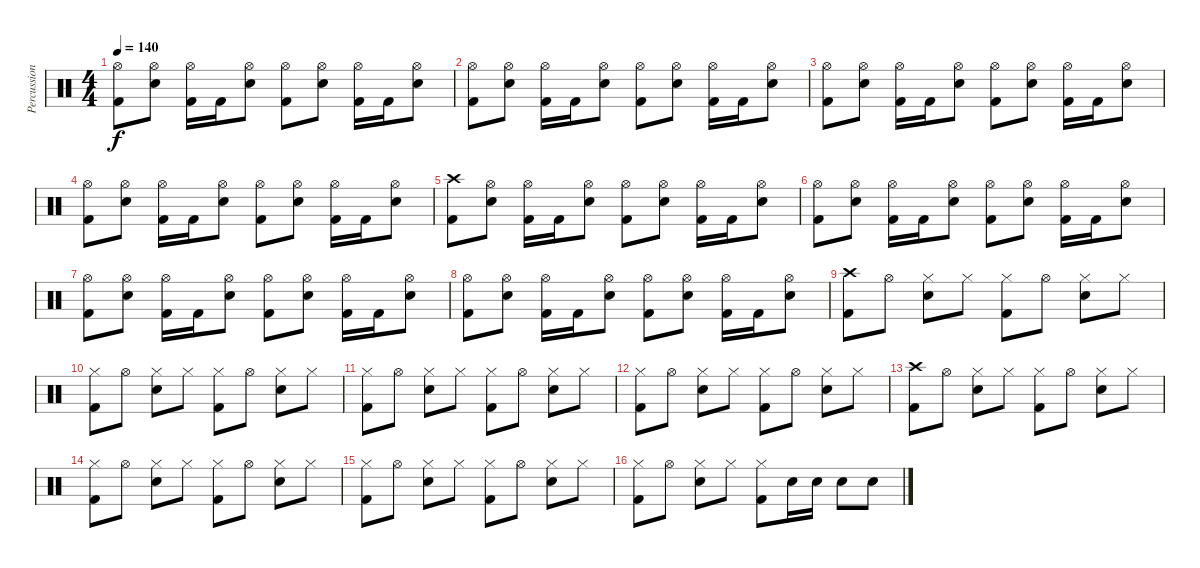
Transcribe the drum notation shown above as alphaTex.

\track ("Percussion" "Percussion") {instrument percussion}
\staff {score}
\articulation defaults
\ts (4 4)
\tempo 140
\clef neutral
\ks c
("Hi-Hat (open)" "Kick (hit) 2").8{dy f} ("Hi-Hat (open)" "Electric Snare (hit)").8 ("Hi-Hat (open)" "Kick (hit) 2").16 "Kick (hit) 2".16 ("Hi-Hat (open)" "Electric Snare (hit)").8 ("Hi-Hat (open)" "Kick (hit) 2").8 ("Hi-Hat (open)" "Electric Snare (hit)").8 ("Hi-Hat (open)" "Kick (hit) 2").16 "Kick (hit) 2".16 ("Hi-Hat (open)" "Electric Snare (hit)").8 |
("Hi-Hat (open)" "Kick (hit) 2").8 ("Hi-Hat (open)" "Electric Snare (hit)").8 ("Hi-Hat (open)" "Kick (hit) 2").16 "Kick (hit) 2".16 ("Hi-Hat (open)" "Electric Snare (hit)").8 ("Hi-Hat (open)" "Kick (hit) 2").8 ("Hi-Hat (open)" "Electric Snare (hit)").8 ("Hi-Hat (open)" "Kick (hit) 2").16 "Kick (hit) 2".16 ("Hi-Hat (open)" "Electric Snare (hit)").8 |
("Hi-Hat (open)" "Kick (hit) 2").8 ("Hi-Hat (open)" "Electric Snare (hit)").8 ("Hi-Hat (open)" "Kick (hit) 2").16 "Kick (hit) 2".16 ("Hi-Hat (open)" "Electric Snare (hit)").8 ("Hi-Hat (open)" "Kick (hit) 2").8 ("Hi-Hat (open)" "Electric Snare (hit)").8 ("Hi-Hat (open)" "Kick (hit) 2").16 "Kick (hit) 2".16 ("Hi-Hat (open)" "Electric Snare (hit)").8 |
("Hi-Hat (open)" "Kick (hit) 2").8 ("Hi-Hat (open)" "Electric Snare (hit)").8 ("Hi-Hat (open)" "Kick (hit) 2").16 "Kick (hit) 2".16 ("Hi-Hat (open)" "Electric Snare (hit)").8 ("Hi-Hat (open)" "Kick (hit) 2").8 ("Hi-Hat (open)" "Electric Snare (hit)").8 ("Hi-Hat (open)" "Kick (hit) 2").16 "Kick (hit) 2".16 ("Hi-Hat (open)" "Electric Snare (hit)").8 |
("Crash high (hit)" "Kick (hit) 2").8 ("Hi-Hat (open)" "Electric Snare (hit)").8 ("Hi-Hat (open)" "Kick (hit) 2").16 "Kick (hit) 2".16 ("Hi-Hat (open)" "Electric Snare (hit)").8 ("Hi-Hat (open)" "Kick (hit) 2").8 ("Hi-Hat (open)" "Electric Snare (hit)").8 ("Hi-Hat (open)" "Kick (hit) 2").16 "Kick (hit) 2".16 ("Hi-Hat (open)" "Electric Snare (hit)").8 |
("Hi-Hat (open)" "Kick (hit) 2").8 ("Hi-Hat (open)" "Electric Snare (hit)").8 ("Hi-Hat (open)" "Kick (hit) 2").16 "Kick (hit) 2".16 ("Hi-Hat (open)" "Electric Snare (hit)").8 ("Hi-Hat (open)" "Kick (hit) 2").8 ("Hi-Hat (open)" "Electric Snare (hit)").8 ("Hi-Hat (open)" "Kick (hit) 2").16 "Kick (hit) 2".16 ("Hi-Hat (open)" "Electric Snare (hit)").8 |
("Hi-Hat (open)" "Kick (hit) 2").8 ("Hi-Hat (open)" "Electric Snare (hit)").8 ("Hi-Hat (open)" "Kick (hit) 2").16 "Kick (hit) 2".16 ("Hi-Hat (open)" "Electric Snare (hit)").8 ("Hi-Hat (open)" "Kick (hit) 2").8 ("Hi-Hat (open)" "Electric Snare (hit)").8 ("Hi-Hat (open)" "Kick (hit) 2").16 "Kick (hit) 2".16 ("Hi-Hat (open)" "Electric Snare (hit)").8 |
("Hi-Hat (open)" "Kick (hit) 2").8 ("Hi-Hat (open)" "Electric Snare (hit)").8 ("Hi-Hat (open)" "Kick (hit) 2").16 "Kick (hit) 2".16 ("Hi-Hat (open)" "Electric Snare (hit)").8 ("Hi-Hat (open)" "Kick (hit) 2").8 ("Hi-Hat (open)" "Electric Snare (hit)").8 ("Hi-Hat (open)" "Kick (hit) 2").16 "Kick (hit) 2".16 ("Hi-Hat (open)" "Electric Snare (hit)").8 |
("Crash high (hit)" "Kick (hit) 2").8 "Hi-Hat (open)".8 ("Hi-Hat (closed)" "Electric Snare (hit)").8 "Hi-Hat (closed)".8 ("Hi-Hat (closed)" "Kick (hit) 2").8 "Hi-Hat (open)".8 ("Hi-Hat (closed)" "Electric Snare (hit)").8 "Hi-Hat (closed)".8 |
("Hi-Hat (closed)" "Kick (hit) 2").8 "Hi-Hat (open)".8 ("Hi-Hat (closed)" "Electric Snare (hit)").8 "Hi-Hat (closed)".8 ("Hi-Hat (closed)" "Kick (hit) 2").8 "Hi-Hat (open)".8 ("Hi-Hat (closed)" "Electric Snare (hit)").8 "Hi-Hat (closed)".8 |
("Hi-Hat (closed)" "Kick (hit) 2").8 "Hi-Hat (open)".8 ("Hi-Hat (closed)" "Electric Snare (hit)").8 "Hi-Hat (closed)".8 ("Hi-Hat (closed)" "Kick (hit) 2").8 "Hi-Hat (open)".8 ("Hi-Hat (closed)" "Electric Snare (hit)").8 "Hi-Hat (closed)".8 |
("Hi-Hat (closed)" "Kick (hit) 2").8 "Hi-Hat (open)".8 ("Hi-Hat (closed)" "Electric Snare (hit)").8 "Hi-Hat (closed)".8 ("Hi-Hat (closed)" "Kick (hit) 2").8 "Hi-Hat (open)".8 ("Hi-Hat (closed)" "Electric Snare (hit)").8 "Hi-Hat (closed)".8 |
("Crash high (hit)" "Kick (hit) 2").8 "Hi-Hat (open)".8 ("Hi-Hat (closed)" "Electric Snare (hit)").8 "Hi-Hat (closed)".8 ("Hi-Hat (closed)" "Kick (hit) 2").8 "Hi-Hat (open)".8 ("Hi-Hat (closed)" "Electric Snare (hit)").8 "Hi-Hat (closed)".8 |
("Hi-Hat (closed)" "Kick (hit) 2").8 "Hi-Hat (open)".8 ("Hi-Hat (closed)" "Electric Snare (hit)").8 "Hi-Hat (closed)".8 ("Hi-Hat (closed)" "Kick (hit) 2").8 "Hi-Hat (open)".8 ("Hi-Hat (closed)" "Electric Snare (hit)").8 "Hi-Hat (closed)".8 |
("Hi-Hat (closed)" "Kick (hit) 2").8 "Hi-Hat (open)".8 ("Hi-Hat (closed)" "Electric Snare (hit)").8 "Hi-Hat (closed)".8 ("Hi-Hat (closed)" "Kick (hit) 2").8 "Hi-Hat (open)".8 ("Hi-Hat (closed)" "Electric Snare (hit)").8 "Hi-Hat (closed)".8 |
("Hi-Hat (closed)" "Kick (hit) 2").8 "Hi-Hat (open)".8 ("Hi-Hat (closed)" "Electric Snare (hit)").8 "Hi-Hat (closed)".8 ("Hi-Hat (closed)" "Kick (hit) 2").8 "Electric Snare (hit)".16 "Electric Snare (hit)".16 "Electric Snare (hit)".8 "Electric Snare (hit)".8
